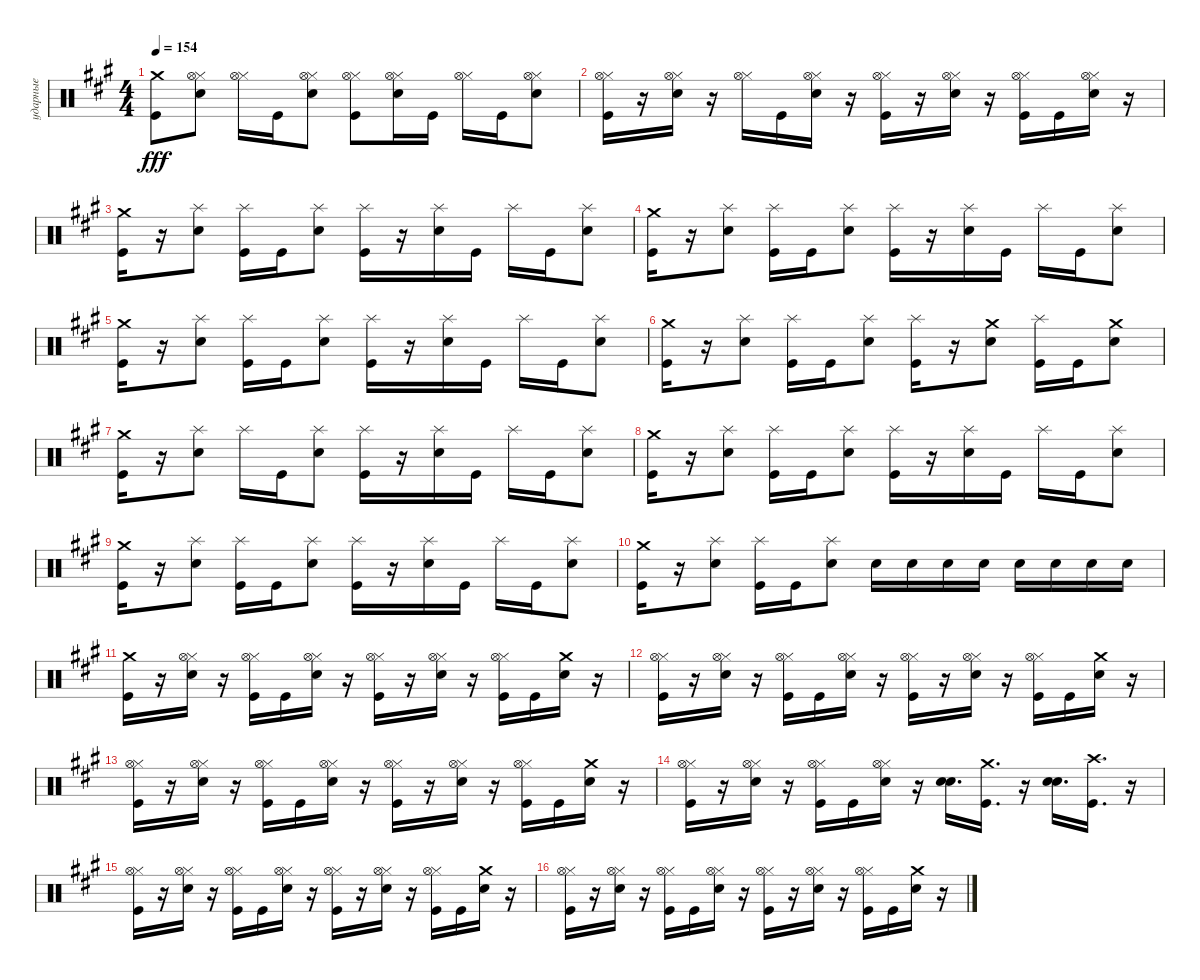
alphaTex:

\track ("ударные" "ударные") {instrument percussion}
\staff {score}
\articulation defaults
\ts (4 4)
\tempo 154
\clef neutral
\ks f#minor
("Crash medium (hit)" "Kick (hit)").8{dy fff} ("Snare (hit) 2" "Hi-Hat (closed)" "Hi-Hat (open)").8 ("Hi-Hat (closed)" "Hi-Hat (open)").16 "Kick (hit)".16 ("Snare (hit) 2" "Hi-Hat (closed)" "Hi-Hat (open)").8 ("Kick (hit)" "Hi-Hat (closed)" "Hi-Hat (open)").8 ("Snare (hit) 2" "Hi-Hat (closed)" "Hi-Hat (open)").16 "Kick (hit)".16 ("Hi-Hat (closed)" "Hi-Hat (open)").16 "Kick (hit)".16 ("Snare (hit) 2" "Hi-Hat (closed)" "Hi-Hat (open)").8 |
("Hi-Hat (closed)" "Kick (hit)" "Hi-Hat (open)").16 r.16 ("Hi-Hat (closed)" "Snare (hit) 2" "Hi-Hat (open)").16 r.16 ("Hi-Hat (closed)" "Hi-Hat (open)").16 "Kick (hit)".16 ("Hi-Hat (closed)" "Snare (hit) 2" "Hi-Hat (open)").16 r.16 ("Hi-Hat (closed)" "Kick (hit)" "Hi-Hat (open)").16 r.16 ("Hi-Hat (closed)" "Snare (hit) 2" "Hi-Hat (open)").16 r.16 ("Kick (hit)" "Hi-Hat (closed)" "Hi-Hat (open)").16 "Kick (hit)".16 ("Snare (hit) 2" "Hi-Hat (closed)" "Hi-Hat (open)").16 r.16 |
("Kick (hit)" "Crash medium (hit)").16 r.16 ("Snare (hit) 2" "Splash (hit)").8 ("Kick (hit)" "Splash (hit)").16 "Kick (hit)".16 ("Snare (hit) 2" "Splash (hit)").8 ("Kick (hit)" "Splash (hit)").16 r.16 ("Snare (hit) 2" "Splash (hit)").16 "Kick (hit)".16 "Splash (hit)".16 "Kick (hit)".16 ("Snare (hit) 2" "Splash (hit)").8 |
("Kick (hit)" "Crash medium (hit)").16 r.16 ("Snare (hit) 2" "Splash (hit)").8 ("Kick (hit)" "Splash (hit)").16 "Kick (hit)".16 ("Snare (hit) 2" "Splash (hit)").8 ("Kick (hit)" "Splash (hit)").16 r.16 ("Snare (hit) 2" "Splash (hit)").16 "Kick (hit)".16 "Splash (hit)".16 "Kick (hit)".16 ("Snare (hit) 2" "Splash (hit)").8 |
("Kick (hit)" "Crash medium (hit)").16 r.16 ("Snare (hit) 2" "Splash (hit)").8 ("Kick (hit)" "Splash (hit)").16 "Kick (hit)".16 ("Snare (hit) 2" "Splash (hit)").8 ("Kick (hit)" "Splash (hit)").16 r.16 ("Snare (hit) 2" "Splash (hit)").16 "Kick (hit)".16 "Splash (hit)".16 "Kick (hit)".16 ("Snare (hit) 2" "Splash (hit)").8 |
("Kick (hit)" "Crash medium (hit)").16 r.16 ("Snare (hit) 2" "Splash (hit)").8 ("Kick (hit)" "Splash (hit)").16 "Kick (hit)".16 ("Snare (hit) 2" "Splash (hit)").8 ("Kick (hit)" "Splash (hit)").16 r.16 ("Crash medium (hit)" "Snare (hit) 2").8 ("Kick (hit)" "Splash (hit)").16 "Kick (hit)".16 ("Crash medium (hit)" "Snare (hit) 2").8 |
("Kick (hit)" "Crash medium (hit)").16 r.16 ("Snare (hit) 2" "Splash (hit)").8 "Splash (hit)".16 "Kick (hit)".16 ("Snare (hit) 2" "Splash (hit)").8 ("Kick (hit)" "Splash (hit)").16 r.16 ("Snare (hit) 2" "Splash (hit)").16 "Kick (hit)".16 "Splash (hit)".16 "Kick (hit)".16 ("Snare (hit) 2" "Splash (hit)").8 |
("Kick (hit)" "Crash medium (hit)").16 r.16 ("Snare (hit) 2" "Splash (hit)").8 ("Kick (hit)" "Splash (hit)").16 "Kick (hit)".16 ("Snare (hit) 2" "Splash (hit)").8 ("Kick (hit)" "Splash (hit)").16 r.16 ("Snare (hit) 2" "Splash (hit)").16 "Kick (hit)".16 "Splash (hit)".16 "Kick (hit)".16 ("Snare (hit) 2" "Splash (hit)").8 |
("Kick (hit)" "Crash medium (hit)").16 r.16 ("Snare (hit) 2" "Splash (hit)").8 ("Kick (hit)" "Splash (hit)").16 "Kick (hit)".16 ("Snare (hit) 2" "Splash (hit)").8 ("Kick (hit)" "Splash (hit)").16 r.16 ("Snare (hit) 2" "Splash (hit)").16 "Kick (hit)".16 "Splash (hit)".16 "Kick (hit)".16 ("Snare (hit) 2" "Splash (hit)").8 |
("Kick (hit)" "Crash medium (hit)").16 r.16 ("Snare (hit) 2" "Splash (hit)").8 ("Kick (hit)" "Splash (hit)").16 "Kick (hit)".16 ("Snare (hit) 2" "Splash (hit)").8 "Snare (hit) 2".16 "Snare (hit) 2".16 "Snare (hit) 2".16 "Snare (hit) 2".16 "Snare (hit) 2".16 "Snare (hit) 2".16 "Snare (hit) 2".16 "Snare (hit) 2".16 |
("Crash medium (hit)" "Kick (hit)").16 r.16 ("Snare (hit) 2" "Hi-Hat (closed)" "Hi-Hat (open)").16 r.16 ("Kick (hit)" "Hi-Hat (closed)" "Hi-Hat (open)").16 "Kick (hit)".16 ("Snare (hit) 2" "Hi-Hat (closed)" "Hi-Hat (open)").16 r.16 ("Hi-Hat (closed)" "Kick (hit)" "Hi-Hat (open)").16 r.16 ("Snare (hit) 2" "Hi-Hat (closed)" "Hi-Hat (open)").16 r.16 ("Hi-Hat (closed)" "Kick (hit)" "Hi-Hat (open)").16 "Kick (hit)".16 ("Crash medium (hit)" "Snare (hit) 2").16 r.16 |
("Hi-Hat (closed)" "Kick (hit)" "Hi-Hat (open)").16 r.16 ("Hi-Hat (closed)" "Snare (hit) 2" "Hi-Hat (open)").16 r.16 ("Hi-Hat (closed)" "Kick (hit)" "Hi-Hat (open)").16 "Kick (hit)".16 ("Hi-Hat (closed)" "Snare (hit) 2" "Hi-Hat (open)").16 r.16 ("Hi-Hat (closed)" "Kick (hit)" "Hi-Hat (open)").16 r.16 ("Hi-Hat (closed)" "Snare (hit) 2" "Hi-Hat (open)").16 r.16 ("Hi-Hat (closed)" "Kick (hit)" "Hi-Hat (open)").16 "Kick (hit)".16 ("Crash medium (hit)" "Snare (hit) 2").16 r.16 |
("Hi-Hat (closed)" "Kick (hit)" "Hi-Hat (open)").16 r.16 ("Hi-Hat (closed)" "Snare (hit) 2" "Hi-Hat (open)").16 r.16 ("Hi-Hat (closed)" "Kick (hit)" "Hi-Hat (open)").16 "Kick (hit)".16 ("Hi-Hat (closed)" "Snare (hit) 2" "Hi-Hat (open)").16 r.16 ("Hi-Hat (closed)" "Kick (hit)" "Hi-Hat (open)").16 r.16 ("Hi-Hat (closed)" "Snare (hit) 2" "Hi-Hat (open)").16 r.16 ("Hi-Hat (closed)" "Kick (hit)" "Hi-Hat (open)").16 "Kick (hit)".16 ("Crash medium (hit)" "Snare (hit) 2").16 r.16 |
("Hi-Hat (closed)" "Kick (hit)" "Hi-Hat (open)").16 r.16 ("Hi-Hat (closed)" "Snare (hit) 2" "Hi-Hat (open)").16 r.16 ("Hi-Hat (closed)" "Kick (hit)" "Hi-Hat (open)").16 "Kick (hit)".16 ("Hi-Hat (closed)" "Snare (hit) 2" "Hi-Hat (open)").16 r.16 ("Snare (hit) 2" "Snare (hit) 2").16{d} ("Crash medium (hit)" "Kick (hit)").16{d} r.16 ("Snare (hit) 2" "Snare (hit) 2").16{d} ("Kick (hit)" "Crash high (hit)").16{d} r.16 |
("Hi-Hat (closed)" "Kick (hit)" "Hi-Hat (open)").16 r.16 ("Hi-Hat (closed)" "Snare (hit) 2" "Hi-Hat (open)").16 r.16 ("Hi-Hat (closed)" "Kick (hit)" "Hi-Hat (open)").16 "Kick (hit)".16 ("Hi-Hat (closed)" "Snare (hit) 2" "Hi-Hat (open)").16 r.16 ("Hi-Hat (closed)" "Kick (hit)" "Hi-Hat (open)").16 r.16 ("Hi-Hat (closed)" "Snare (hit) 2" "Hi-Hat (open)").16 r.16 ("Hi-Hat (closed)" "Kick (hit)" "Hi-Hat (open)").16 "Kick (hit)".16 ("Crash medium (hit)" "Snare (hit) 2").16 r.16 |
("Hi-Hat (closed)" "Kick (hit)" "Hi-Hat (open)").16 r.16 ("Hi-Hat (closed)" "Snare (hit) 2" "Hi-Hat (open)").16 r.16 ("Hi-Hat (closed)" "Kick (hit)" "Hi-Hat (open)").16 "Kick (hit)".16 ("Hi-Hat (closed)" "Snare (hit) 2" "Hi-Hat (open)").16 r.16 ("Hi-Hat (closed)" "Kick (hit)" "Hi-Hat (open)").16 r.16 ("Hi-Hat (closed)" "Snare (hit) 2" "Hi-Hat (open)").16 r.16 ("Hi-Hat (closed)" "Kick (hit)" "Hi-Hat (open)").16 "Kick (hit)".16 ("Crash medium (hit)" "Snare (hit) 2").16 r.16
